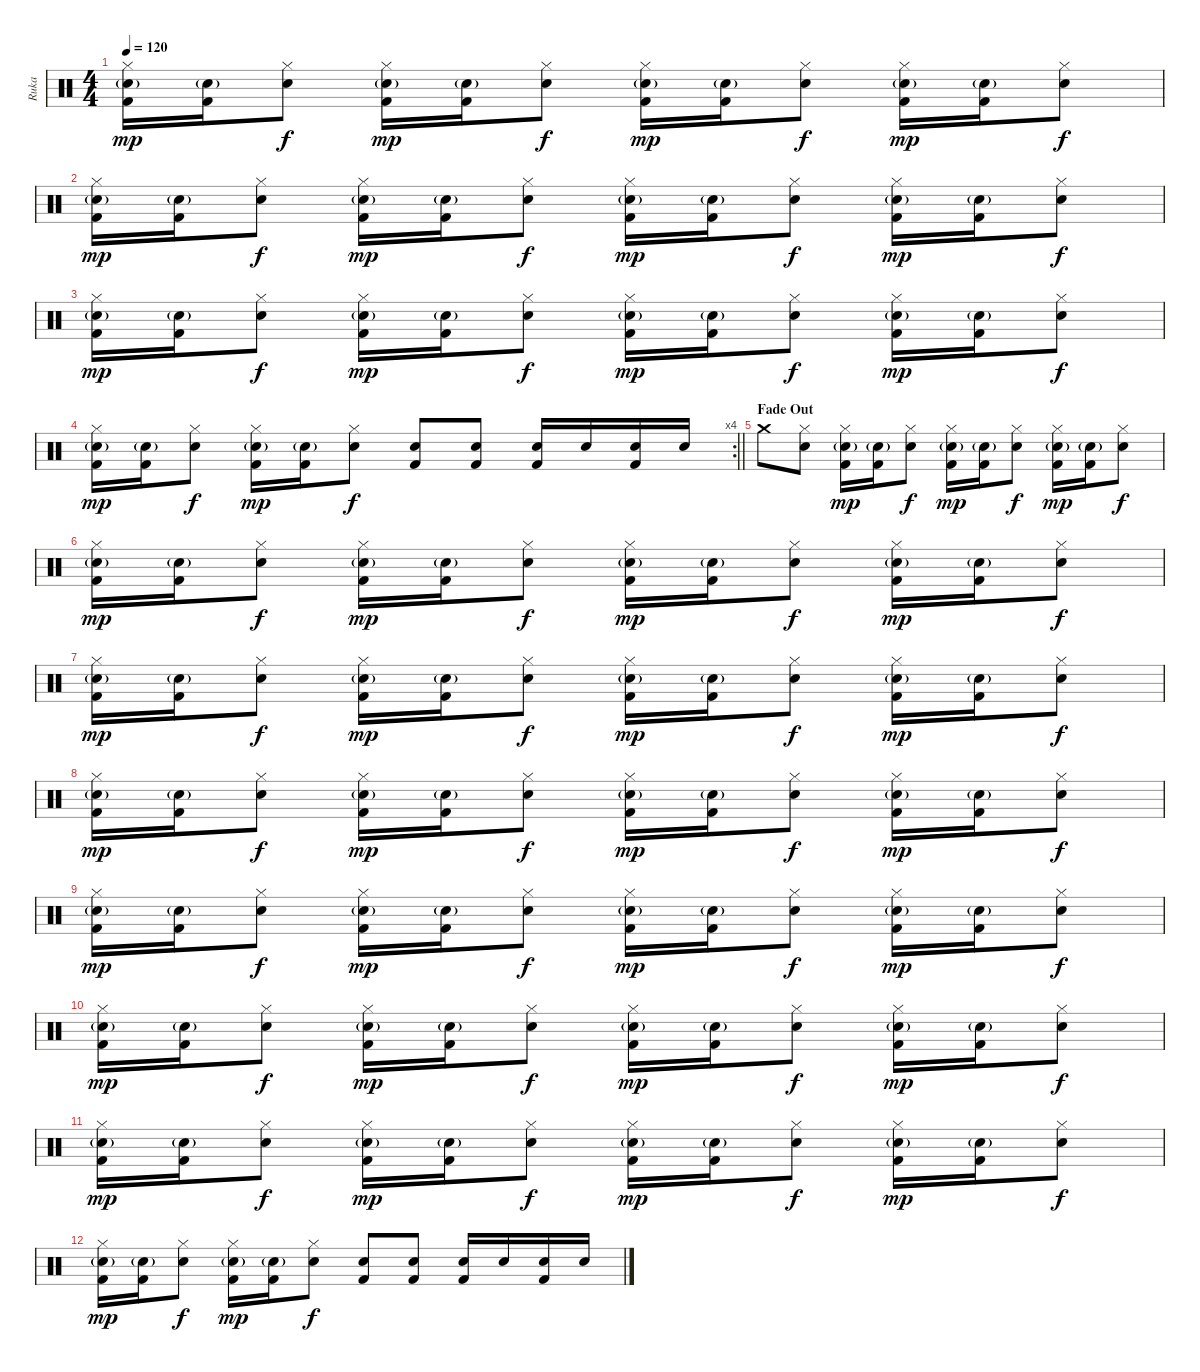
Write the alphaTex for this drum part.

\track ("Ruka" "Ruka") {instrument percussion}
\staff {score}
\articulation defaults
\ts (4 4)
\tempo 120
\clef neutral
\ks c
("Kick (hit) 2" "Snare (hit) 2"{g} "Hi-Hat (closed)").16{dy mp} ("Kick (hit) 2" "Snare (hit) 2"{g}).16 ("Snare (hit) 2" "Hi-Hat (closed)").8{dy f} ("Kick (hit) 2" "Snare (hit) 2"{g} "Hi-Hat (closed)").16{dy mp} ("Kick (hit) 2" "Snare (hit) 2"{g}).16 ("Snare (hit) 2" "Hi-Hat (closed)").8{dy f} ("Kick (hit) 2" "Snare (hit) 2"{g} "Hi-Hat (closed)").16{dy mp} ("Kick (hit) 2" "Snare (hit) 2"{g}).16 ("Snare (hit) 2" "Hi-Hat (closed)").8{dy f} ("Kick (hit) 2" "Snare (hit) 2"{g} "Hi-Hat (closed)").16{dy mp} ("Kick (hit) 2" "Snare (hit) 2"{g}).16 ("Snare (hit) 2" "Hi-Hat (closed)").8{dy f} |
("Kick (hit) 2" "Snare (hit) 2"{g} "Hi-Hat (closed)").16{dy mp} ("Kick (hit) 2" "Snare (hit) 2"{g}).16 ("Snare (hit) 2" "Hi-Hat (closed)").8{dy f} ("Kick (hit) 2" "Snare (hit) 2"{g} "Hi-Hat (closed)").16{dy mp} ("Kick (hit) 2" "Snare (hit) 2"{g}).16 ("Snare (hit) 2" "Hi-Hat (closed)").8{dy f} ("Kick (hit) 2" "Snare (hit) 2"{g} "Hi-Hat (closed)").16{dy mp} ("Kick (hit) 2" "Snare (hit) 2"{g}).16 ("Snare (hit) 2" "Hi-Hat (closed)").8{dy f} ("Kick (hit) 2" "Snare (hit) 2"{g} "Hi-Hat (closed)").16{dy mp} ("Kick (hit) 2" "Snare (hit) 2"{g}).16 ("Snare (hit) 2" "Hi-Hat (closed)").8{dy f} |
("Kick (hit) 2" "Snare (hit) 2"{g} "Hi-Hat (closed)").16{dy mp} ("Kick (hit) 2" "Snare (hit) 2"{g}).16 ("Snare (hit) 2" "Hi-Hat (closed)").8{dy f} ("Kick (hit) 2" "Snare (hit) 2"{g} "Hi-Hat (closed)").16{dy mp} ("Kick (hit) 2" "Snare (hit) 2"{g}).16 ("Snare (hit) 2" "Hi-Hat (closed)").8{dy f} ("Kick (hit) 2" "Snare (hit) 2"{g} "Hi-Hat (closed)").16{dy mp} ("Kick (hit) 2" "Snare (hit) 2"{g}).16 ("Snare (hit) 2" "Hi-Hat (closed)").8{dy f} ("Kick (hit) 2" "Snare (hit) 2"{g} "Hi-Hat (closed)").16{dy mp} ("Kick (hit) 2" "Snare (hit) 2"{g}).16 ("Snare (hit) 2" "Hi-Hat (closed)").8{dy f} |
\rc 4
\barLineRight lightlight
("Kick (hit) 2" "Snare (hit) 2"{g} "Hi-Hat (closed)").16{dy mp} ("Kick (hit) 2" "Snare (hit) 2"{g}).16 ("Snare (hit) 2" "Hi-Hat (closed)").8{dy f} ("Kick (hit) 2" "Snare (hit) 2"{g} "Hi-Hat (closed)").16{dy mp} ("Kick (hit) 2" "Snare (hit) 2"{g}).16 ("Snare (hit) 2" "Hi-Hat (closed)").8{dy f} ("Kick (hit) 2" "Snare (hit) 2").8 ("Kick (hit) 2" "Snare (hit) 2").8 ("Kick (hit) 2" "Snare (hit) 2").16 "Snare (hit) 2".16 ("Kick (hit) 2" "Snare (hit) 2").16 "Snare (hit) 2".16 |
\section ("" "Fade Out")
"Crash medium (hit)".8{volume 7} ("Snare (hit) 2" "Hi-Hat (closed)").8 ("Kick (hit) 2" "Snare (hit) 2"{g} "Hi-Hat (closed)").16{dy mp} ("Kick (hit) 2" "Snare (hit) 2"{g}).16 ("Snare (hit) 2" "Hi-Hat (closed)").8{dy f} ("Kick (hit) 2" "Snare (hit) 2"{g} "Hi-Hat (closed)").16{dy mp} ("Kick (hit) 2" "Snare (hit) 2"{g}).16 ("Snare (hit) 2" "Hi-Hat (closed)").8{dy f} ("Kick (hit) 2" "Snare (hit) 2"{g} "Hi-Hat (closed)").16{dy mp} ("Kick (hit) 2" "Snare (hit) 2"{g}).16 ("Snare (hit) 2" "Hi-Hat (closed)").8{dy f} |
("Kick (hit) 2" "Snare (hit) 2"{g} "Hi-Hat (closed)").16{dy mp} ("Kick (hit) 2" "Snare (hit) 2"{g}).16 ("Snare (hit) 2" "Hi-Hat (closed)").8{dy f} ("Kick (hit) 2" "Snare (hit) 2"{g} "Hi-Hat (closed)").16{dy mp} ("Kick (hit) 2" "Snare (hit) 2"{g}).16 ("Snare (hit) 2" "Hi-Hat (closed)").8{dy f} ("Kick (hit) 2" "Snare (hit) 2"{g} "Hi-Hat (closed)").16{dy mp} ("Kick (hit) 2" "Snare (hit) 2"{g}).16 ("Snare (hit) 2" "Hi-Hat (closed)").8{dy f} ("Kick (hit) 2" "Snare (hit) 2"{g} "Hi-Hat (closed)").16{dy mp} ("Kick (hit) 2" "Snare (hit) 2"{g}).16 ("Snare (hit) 2" "Hi-Hat (closed)").8{dy f} |
("Kick (hit) 2" "Snare (hit) 2"{g} "Hi-Hat (closed)").16{dy mp} ("Kick (hit) 2" "Snare (hit) 2"{g}).16 ("Snare (hit) 2" "Hi-Hat (closed)").8{dy f} ("Kick (hit) 2" "Snare (hit) 2"{g} "Hi-Hat (closed)").16{dy mp} ("Kick (hit) 2" "Snare (hit) 2"{g}).16 ("Snare (hit) 2" "Hi-Hat (closed)").8{dy f} ("Kick (hit) 2" "Snare (hit) 2"{g} "Hi-Hat (closed)").16{dy mp} ("Kick (hit) 2" "Snare (hit) 2"{g}).16 ("Snare (hit) 2" "Hi-Hat (closed)").8{dy f} ("Kick (hit) 2" "Snare (hit) 2"{g} "Hi-Hat (closed)").16{dy mp} ("Kick (hit) 2" "Snare (hit) 2"{g}).16 ("Snare (hit) 2" "Hi-Hat (closed)").8{dy f} |
("Kick (hit) 2" "Snare (hit) 2"{g} "Hi-Hat (closed)").16{dy mp} ("Kick (hit) 2" "Snare (hit) 2"{g}).16 ("Snare (hit) 2" "Hi-Hat (closed)").8{dy f} ("Kick (hit) 2" "Snare (hit) 2"{g} "Hi-Hat (closed)").16{dy mp} ("Kick (hit) 2" "Snare (hit) 2"{g}).16 ("Snare (hit) 2" "Hi-Hat (closed)").8{dy f} ("Kick (hit) 2" "Snare (hit) 2"{g} "Hi-Hat (closed)").16{dy mp} ("Kick (hit) 2" "Snare (hit) 2"{g}).16 ("Snare (hit) 2" "Hi-Hat (closed)").8{dy f} ("Kick (hit) 2" "Snare (hit) 2"{g} "Hi-Hat (closed)").16{dy mp} ("Kick (hit) 2" "Snare (hit) 2"{g}).16 ("Snare (hit) 2" "Hi-Hat (closed)").8{dy f} |
("Kick (hit) 2" "Snare (hit) 2"{g} "Hi-Hat (closed)").16{dy mp volume 0} ("Kick (hit) 2" "Snare (hit) 2"{g}).16 ("Snare (hit) 2" "Hi-Hat (closed)").8{dy f} ("Kick (hit) 2" "Snare (hit) 2"{g} "Hi-Hat (closed)").16{dy mp} ("Kick (hit) 2" "Snare (hit) 2"{g}).16 ("Snare (hit) 2" "Hi-Hat (closed)").8{dy f} ("Kick (hit) 2" "Snare (hit) 2"{g} "Hi-Hat (closed)").16{dy mp} ("Kick (hit) 2" "Snare (hit) 2"{g}).16 ("Snare (hit) 2" "Hi-Hat (closed)").8{dy f} ("Kick (hit) 2" "Snare (hit) 2"{g} "Hi-Hat (closed)").16{dy mp} ("Kick (hit) 2" "Snare (hit) 2"{g}).16 ("Snare (hit) 2" "Hi-Hat (closed)").8{dy f} |
("Kick (hit) 2" "Snare (hit) 2"{g} "Hi-Hat (closed)").16{dy mp} ("Kick (hit) 2" "Snare (hit) 2"{g}).16 ("Snare (hit) 2" "Hi-Hat (closed)").8{dy f} ("Kick (hit) 2" "Snare (hit) 2"{g} "Hi-Hat (closed)").16{dy mp} ("Kick (hit) 2" "Snare (hit) 2"{g}).16 ("Snare (hit) 2" "Hi-Hat (closed)").8{dy f} ("Kick (hit) 2" "Snare (hit) 2"{g} "Hi-Hat (closed)").16{dy mp} ("Kick (hit) 2" "Snare (hit) 2"{g}).16 ("Snare (hit) 2" "Hi-Hat (closed)").8{dy f} ("Kick (hit) 2" "Snare (hit) 2"{g} "Hi-Hat (closed)").16{dy mp} ("Kick (hit) 2" "Snare (hit) 2"{g}).16 ("Snare (hit) 2" "Hi-Hat (closed)").8{dy f} |
("Kick (hit) 2" "Snare (hit) 2"{g} "Hi-Hat (closed)").16{dy mp} ("Kick (hit) 2" "Snare (hit) 2"{g}).16 ("Snare (hit) 2" "Hi-Hat (closed)").8{dy f} ("Kick (hit) 2" "Snare (hit) 2"{g} "Hi-Hat (closed)").16{dy mp} ("Kick (hit) 2" "Snare (hit) 2"{g}).16 ("Snare (hit) 2" "Hi-Hat (closed)").8{dy f} ("Kick (hit) 2" "Snare (hit) 2"{g} "Hi-Hat (closed)").16{dy mp} ("Kick (hit) 2" "Snare (hit) 2"{g}).16 ("Snare (hit) 2" "Hi-Hat (closed)").8{dy f} ("Kick (hit) 2" "Snare (hit) 2"{g} "Hi-Hat (closed)").16{dy mp} ("Kick (hit) 2" "Snare (hit) 2"{g}).16 ("Snare (hit) 2" "Hi-Hat (closed)").8{dy f} |
("Kick (hit) 2" "Snare (hit) 2"{g} "Hi-Hat (closed)").16{dy mp} ("Kick (hit) 2" "Snare (hit) 2"{g}).16 ("Snare (hit) 2" "Hi-Hat (closed)").8{dy f} ("Kick (hit) 2" "Snare (hit) 2"{g} "Hi-Hat (closed)").16{dy mp} ("Kick (hit) 2" "Snare (hit) 2"{g}).16 ("Snare (hit) 2" "Hi-Hat (closed)").8{dy f} ("Kick (hit) 2" "Snare (hit) 2").8 ("Kick (hit) 2" "Snare (hit) 2").8 ("Kick (hit) 2" "Snare (hit) 2").16 "Snare (hit) 2".16 ("Kick (hit) 2" "Snare (hit) 2").16 "Snare (hit) 2".16
